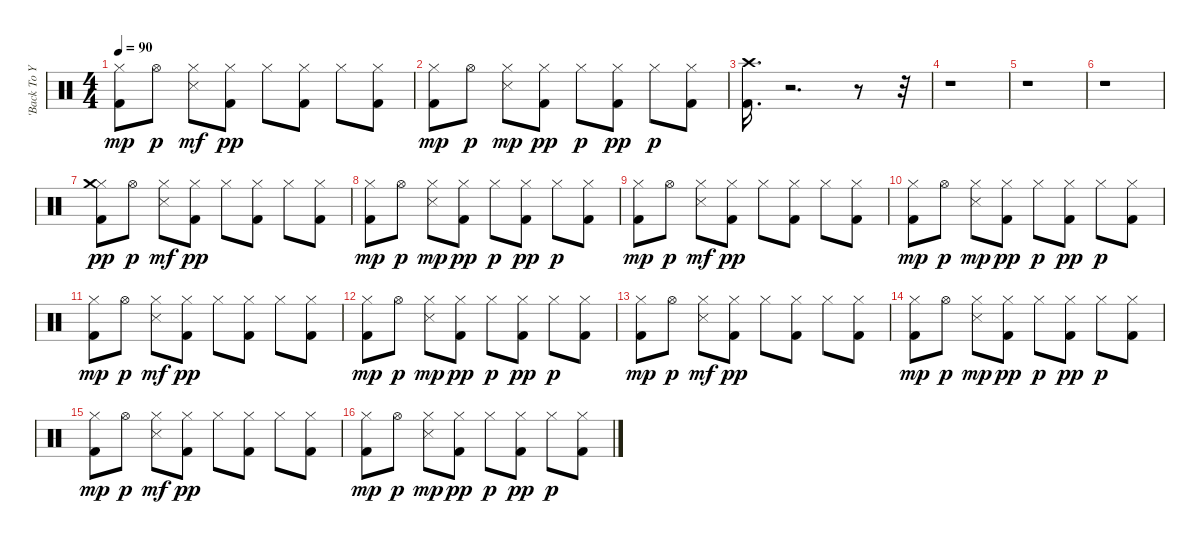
\track ("'Back To Your Heart'" "'Back To Y") {instrument percussion}
\staff {score}
\articulation defaults
\ts (4 4)
\tempo 90
\clef neutral
\ks c
("Kick (hit) 2" "Hi-Hat (closed)").8{dy mp} "Hi-Hat (open)".8{dy p} ("Snare (side stick) 3" "Hi-Hat (closed)").8{dy mf} ("Kick (hit) 2" "Hi-Hat (closed)").8{dy pp} "Hi-Hat (closed)".8 ("Kick (hit) 2" "Hi-Hat (closed)").8 "Hi-Hat (closed)".8 ("Kick (hit) 2" "Hi-Hat (closed)").8 |
("Kick (hit) 2" "Hi-Hat (closed)").8{dy mp} "Hi-Hat (open)".8{dy p} ("Snare (side stick) 3" "Hi-Hat (closed)").8{dy mp} ("Kick (hit) 2" "Hi-Hat (closed)").8{dy pp} "Hi-Hat (closed)".8{dy p} ("Kick (hit) 2" "Hi-Hat (closed)").8{dy pp} "Hi-Hat (closed)".8{dy p} ("Kick (hit) 2" "Hi-Hat (closed)").8 |
("Kick (hit) 2" "Crash high (hit)").16{d} r.2{d} r.8 r.32 |
r.1 |
r.1 |
r.1 |
("Kick (hit) 2" "Hi-Hat (closed)" "Crash medium (hit)").8{dy pp} "Hi-Hat (open)".8{dy p} ("Snare (side stick) 3" "Hi-Hat (closed)").8{dy mf} ("Kick (hit) 2" "Hi-Hat (closed)").8{dy pp} "Hi-Hat (closed)".8 ("Kick (hit) 2" "Hi-Hat (closed)").8 "Hi-Hat (closed)".8 ("Kick (hit) 2" "Hi-Hat (closed)").8 |
("Kick (hit) 2" "Hi-Hat (closed)").8{dy mp} "Hi-Hat (open)".8{dy p} ("Snare (side stick) 3" "Hi-Hat (closed)").8{dy mp} ("Kick (hit) 2" "Hi-Hat (closed)").8{dy pp} "Hi-Hat (closed)".8{dy p} ("Kick (hit) 2" "Hi-Hat (closed)").8{dy pp} "Hi-Hat (closed)".8{dy p} ("Kick (hit) 2" "Hi-Hat (closed)").8 |
("Kick (hit) 2" "Hi-Hat (closed)").8{dy mp} "Hi-Hat (open)".8{dy p} ("Snare (side stick) 3" "Hi-Hat (closed)").8{dy mf} ("Kick (hit) 2" "Hi-Hat (closed)").8{dy pp} "Hi-Hat (closed)".8 ("Kick (hit) 2" "Hi-Hat (closed)").8 "Hi-Hat (closed)".8 ("Kick (hit) 2" "Hi-Hat (closed)").8 |
("Kick (hit) 2" "Hi-Hat (closed)").8{dy mp} "Hi-Hat (open)".8{dy p} ("Snare (side stick) 3" "Hi-Hat (closed)").8{dy mp} ("Kick (hit) 2" "Hi-Hat (closed)").8{dy pp} "Hi-Hat (closed)".8{dy p} ("Kick (hit) 2" "Hi-Hat (closed)").8{dy pp} "Hi-Hat (closed)".8{dy p} ("Kick (hit) 2" "Hi-Hat (closed)").8 |
("Kick (hit) 2" "Hi-Hat (closed)").8{dy mp} "Hi-Hat (open)".8{dy p} ("Snare (side stick) 3" "Hi-Hat (closed)").8{dy mf} ("Kick (hit) 2" "Hi-Hat (closed)").8{dy pp} "Hi-Hat (closed)".8 ("Kick (hit) 2" "Hi-Hat (closed)").8 "Hi-Hat (closed)".8 ("Kick (hit) 2" "Hi-Hat (closed)").8 |
("Kick (hit) 2" "Hi-Hat (closed)").8{dy mp} "Hi-Hat (open)".8{dy p} ("Snare (side stick) 3" "Hi-Hat (closed)").8{dy mp} ("Kick (hit) 2" "Hi-Hat (closed)").8{dy pp} "Hi-Hat (closed)".8{dy p} ("Kick (hit) 2" "Hi-Hat (closed)").8{dy pp} "Hi-Hat (closed)".8{dy p} ("Kick (hit) 2" "Hi-Hat (closed)").8 |
("Kick (hit) 2" "Hi-Hat (closed)").8{dy mp} "Hi-Hat (open)".8{dy p} ("Snare (side stick) 3" "Hi-Hat (closed)").8{dy mf} ("Kick (hit) 2" "Hi-Hat (closed)").8{dy pp} "Hi-Hat (closed)".8 ("Kick (hit) 2" "Hi-Hat (closed)").8 "Hi-Hat (closed)".8 ("Kick (hit) 2" "Hi-Hat (closed)").8 |
("Kick (hit) 2" "Hi-Hat (closed)").8{dy mp} "Hi-Hat (open)".8{dy p} ("Snare (side stick) 3" "Hi-Hat (closed)").8{dy mp} ("Kick (hit) 2" "Hi-Hat (closed)").8{dy pp} "Hi-Hat (closed)".8{dy p} ("Kick (hit) 2" "Hi-Hat (closed)").8{dy pp} "Hi-Hat (closed)".8{dy p} ("Kick (hit) 2" "Hi-Hat (closed)").8 |
("Kick (hit) 2" "Hi-Hat (closed)").8{dy mp} "Hi-Hat (open)".8{dy p} ("Snare (side stick) 3" "Hi-Hat (closed)").8{dy mf} ("Kick (hit) 2" "Hi-Hat (closed)").8{dy pp} "Hi-Hat (closed)".8 ("Kick (hit) 2" "Hi-Hat (closed)").8 "Hi-Hat (closed)".8 ("Kick (hit) 2" "Hi-Hat (closed)").8 |
("Kick (hit) 2" "Hi-Hat (closed)").8{dy mp} "Hi-Hat (open)".8{dy p} ("Snare (side stick) 3" "Hi-Hat (closed)").8{dy mp} ("Kick (hit) 2" "Hi-Hat (closed)").8{dy pp} "Hi-Hat (closed)".8{dy p} ("Kick (hit) 2" "Hi-Hat (closed)").8{dy pp} "Hi-Hat (closed)".8{dy p} ("Kick (hit) 2" "Hi-Hat (closed)").8
